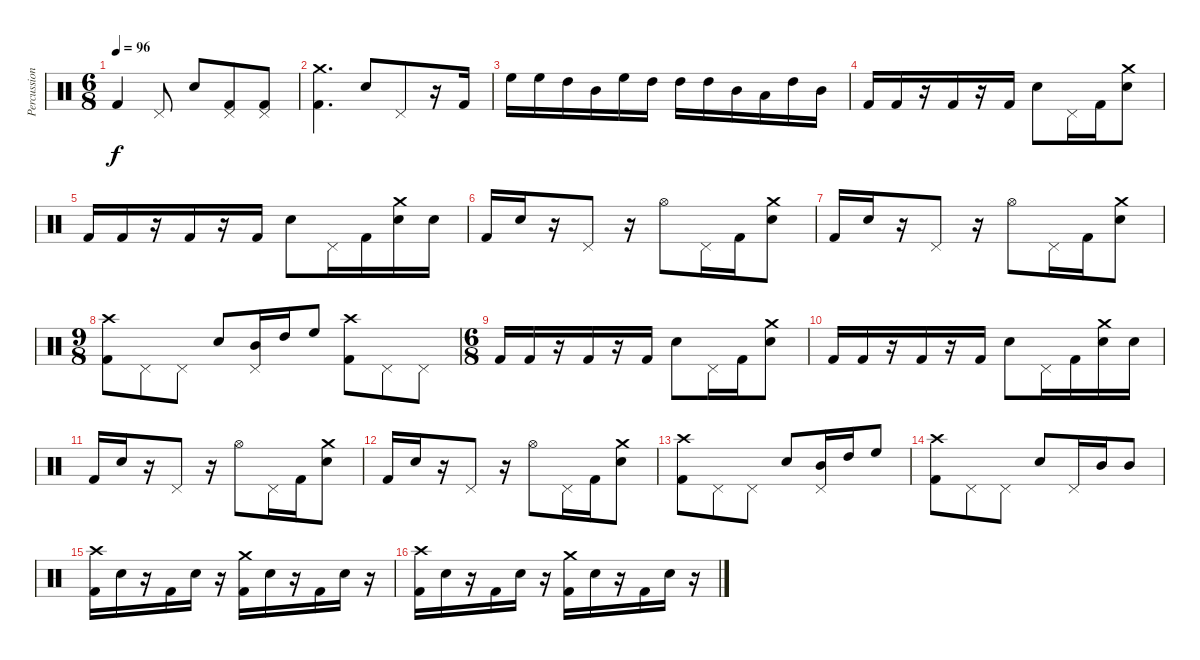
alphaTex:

\track ("Percussion" "Percussion") {instrument percussion}
\staff {score}
\articulation defaults
\ts (6 8)
\tempo 96
\clef neutral
\ks c "Kick (hit) 2".4{dy f} "Pedal Hi-Hat (hit)".8 "Snare (hit) 2".8
("Kick (hit) 2" "Pedal Hi-Hat (hit)").8 ("Kick (hit) 2" "Pedal Hi-Hat (hit)").8 |
("Kick (hit) 2" "Crash medium (hit)").4{d} "Snare (hit) 2".8 "Pedal Hi-Hat (hit)".8 r.16 "Kick (hit) 2".16 |
"High Floor Tom (hit)".16 "High Floor Tom (hit)".16 "High Tom (hit)".16 "Mid Tom (hit)".16 "High Floor Tom (hit)".16 "High Tom (hit)".16 "High Tom (hit)".16 "High Tom (hit)".16 "Mid Tom (hit)".16 "Low Tom (hit)".16 "High Tom (hit)".16 "Mid Tom (hit)".16 |
"Kick (hit) 2".16 "Kick (hit) 2".16 r.16 "Kick (hit) 2".16 r.16 "Kick (hit) 2".16 "Snare (hit) 2".8 "Pedal Hi-Hat (hit)".16 "Kick (hit) 2".16 ("Snare (hit) 2" "Crash medium (hit)").8 |
"Kick (hit) 2".16 "Kick (hit) 2".16 r.16 "Kick (hit) 2".16 r.16 "Kick (hit) 2".16 "Snare (hit) 2".8 "Pedal Hi-Hat (hit)".16 "Kick (hit) 2".16 ("Snare (hit) 2" "Crash medium (hit)").16 "Snare (hit) 2".16 |
"Kick (hit) 2".16 "Snare (hit) 2".16 r.16 "Pedal Hi-Hat (hit)".8 r.16 "Hi-Hat (open)".8 "Pedal Hi-Hat (hit)".16 "Kick (hit) 2".16 ("Snare (hit) 2" "Crash medium (hit)").8 |
"Kick (hit) 2".16 "Snare (hit) 2".16 r.16 "Pedal Hi-Hat (hit)".8 r.16 "Hi-Hat (open)".8 "Pedal Hi-Hat (hit)".16 "Kick (hit) 2".16 ("Snare (hit) 2" "Crash medium (hit)").8 |
\ts (9 8)
("Kick (hit) 2" "Crash high (hit)").8 "Pedal Hi-Hat (hit)".8 "Pedal Hi-Hat (hit)".8 "Snare (hit) 2".8 ("Mid Tom (hit)" "Pedal Hi-Hat (hit)").16 "High Tom (hit)".16 "High Floor Tom (hit)".8 ("Kick (hit) 2" "Crash high (hit)").8 "Pedal Hi-Hat (hit)".8 "Pedal Hi-Hat (hit)".8 |
\ts (6 8)
"Kick (hit) 2".16 "Kick (hit) 2".16 r.16 "Kick (hit) 2".16 r.16 "Kick (hit) 2".16 "Snare (hit) 2".8 "Pedal Hi-Hat (hit)".16 "Kick (hit) 2".16 ("Snare (hit) 2" "Crash medium (hit)").8 |
"Kick (hit) 2".16 "Kick (hit) 2".16 r.16 "Kick (hit) 2".16 r.16 "Kick (hit) 2".16 "Snare (hit) 2".8 "Pedal Hi-Hat (hit)".16 "Kick (hit) 2".16 ("Snare (hit) 2" "Crash medium (hit)").16 "Snare (hit) 2".16 |
"Kick (hit) 2".16 "Snare (hit) 2".16 r.16 "Pedal Hi-Hat (hit)".8 r.16 "Hi-Hat (open)".8 "Pedal Hi-Hat (hit)".16 "Kick (hit) 2".16 ("Snare (hit) 2" "Crash medium (hit)").8 |
"Kick (hit) 2".16 "Snare (hit) 2".16 r.16 "Pedal Hi-Hat (hit)".8 r.16 "Hi-Hat (open)".8 "Pedal Hi-Hat (hit)".16 "Kick (hit) 2".16 ("Snare (hit) 2" "Crash medium (hit)").8 |
("Kick (hit) 2" "Crash high (hit)").8 "Pedal Hi-Hat (hit)".8 "Pedal Hi-Hat (hit)".8 "Snare (hit) 2".8 ("Mid Tom (hit)" "Pedal Hi-Hat (hit)").16 "High Tom (hit)".16 "High Floor Tom (hit)".8 |
("Kick (hit) 2" "Crash high (hit)").8 "Pedal Hi-Hat (hit)".8 "Pedal Hi-Hat (hit)".8 "Snare (hit) 2".8 "Pedal Hi-Hat (hit)".16 "Mid Tom (hit)".16 "Mid Tom (hit)".8 |
("Kick (hit) 2" "Crash high (hit)").16 "Snare (hit) 2".16 r.16 "Kick (hit) 2".16 "Snare (hit) 2".16 r.16 ("Kick (hit) 2" "Crash medium (hit)").16 "Snare (hit) 2".16 r.16 "Kick (hit) 2".16 "Snare (hit) 2".16 r.16 |
("Kick (hit) 2" "Crash high (hit)").16 "Snare (hit) 2".16 r.16 "Kick (hit) 2".16 "Snare (hit) 2".16 r.16 ("Kick (hit) 2" "Crash medium (hit)").16 "Snare (hit) 2".16 r.16 "Kick (hit) 2".16 "Snare (hit) 2".16 r.16
